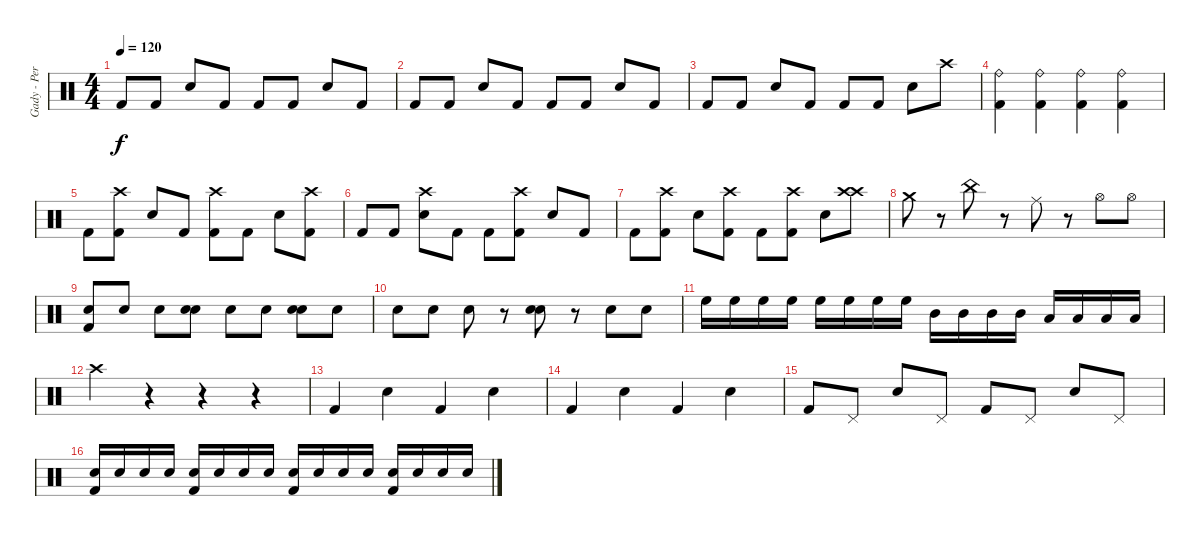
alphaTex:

\track ("Gady - Perkusja" "Gady - Per") {instrument percussion}
\staff {score}
\articulation defaults
\ts (4 4)
\tempo 120
\clef neutral
\ks c "Kick (hit) 2".8{dy f} "Kick (hit) 2".8 "Snare (hit) 2".8 "Kick (hit) 2".8 "Kick (hit) 2".8 "Kick (hit) 2".8 "Snare (hit) 2".8 "Kick (hit) 2".8
|
"Kick (hit) 2".8 "Kick (hit) 2".8 "Snare (hit) 2".8 "Kick (hit) 2".8 "Kick (hit) 2".8 "Kick (hit) 2".8 "Snare (hit) 2".8 "Kick (hit) 2".8 |
"Kick (hit) 2".8 "Kick (hit) 2".8 "Snare (hit) 2".8 "Kick (hit) 2".8 "Kick (hit) 2".8 "Kick (hit) 2".8 "Snare (hit) 2".8 "Crash high (hit)".8 |
("Ride (bell)" "Kick (hit) 2").4 ("Ride (bell)" "Kick (hit) 2").4 ("Ride (bell)" "Kick (hit) 2").4 ("Ride (bell)" "Kick (hit) 2").4 |
"Kick (hit) 2".8 ("Crash high (hit)" "Kick (hit) 2").8 "Snare (hit) 2".8 "Kick (hit) 2".8 ("Crash high (hit)" "Kick (hit) 2").8 "Kick (hit) 2".8 "Snare (hit) 2".8 ("Crash high (hit)" "Kick (hit) 2").8 |
"Kick (hit) 2".8 "Kick (hit) 2".8 ("Crash high (hit)" "Snare (hit) 2").8 "Kick (hit) 2".8 "Kick (hit) 2".8 ("Crash high (hit)" "Kick (hit) 2").8 "Snare (hit) 2".8 "Kick (hit) 2".8 |
"Kick (hit) 2".8 ("Crash high (hit)" "Kick (hit) 2").8 "Snare (hit) 2".8 ("Crash high (hit)" "Kick (hit) 2").8 "Kick (hit) 2".8 ("Crash high (hit)" "Kick (hit) 2").8 "Snare (hit) 2".8 ("Crash high (hit)" "Crash high (hit)").8 |
"Crash medium (hit)".8 r.8 "China (hit)".8 r.8 "Ride (middle)".8 r.8 "Hi-Hat (open)".8 "Hi-Hat (open)".8 |
("Electric Snare (hit)" "Kick (hit) 2").8 "Electric Snare (hit)".8 "Electric Snare (hit)".8 ("Electric Snare (hit)" "Snare (hit) 2").8 "Electric Snare (hit)".8 "Electric Snare (hit)".8 ("Electric Snare (hit)" "Snare (hit) 2").8 "Electric Snare (hit)".8 |
"Electric Snare (hit)".8 "Snare (hit) 2".8 "Electric Snare (hit)".8 r.8 ("Electric Snare (hit)" "Snare (hit) 2").8 r.8 "Electric Snare (hit)".8 "Snare (hit) 2".8 |
"High Floor Tom (hit)".16 "High Floor Tom (hit)".16 "High Floor Tom (hit)".16 "High Floor Tom (hit)".16 "High Floor Tom (hit)".16 "High Floor Tom (hit)".16 "High Floor Tom (hit)".16 "High Floor Tom (hit)".16 "Mid Tom (hit)".16 "Mid Tom (hit)".16 "Mid Tom (hit)".16 "Mid Tom (hit)".16 "Low Tom (hit)".16 "Low Tom (hit)".16 "Low Tom (hit)".16 "Low Tom (hit)".16 |
"Crash high (hit)".4 r.4 r.4 r.4 |
"Kick (hit) 2".4 "Snare (hit) 2".4 "Kick (hit) 2".4 "Snare (hit) 2".4 |
"Kick (hit) 2".4 "Snare (hit) 2".4 "Kick (hit) 2".4 "Snare (hit) 2".4 |
"Kick (hit) 2".8 "Pedal Hi-Hat (hit)".8 "Snare (hit) 2".8 "Pedal Hi-Hat (hit)".8 "Kick (hit) 2".8 "Pedal Hi-Hat (hit)".8 "Snare (hit) 2".8 "Pedal Hi-Hat (hit)".8 |
("Snare (hit) 2" "Kick (hit) 2").16 "Snare (hit) 2".16 "Snare (hit) 2".16 "Snare (hit) 2".16 ("Snare (hit) 2" "Kick (hit) 2").16 "Snare (hit) 2".16 "Snare (hit) 2".16 "Snare (hit) 2".16 ("Snare (hit) 2" "Kick (hit) 2").16 "Snare (hit) 2".16 "Snare (hit) 2".16 "Snare (hit) 2".16 ("Snare (hit) 2" "Kick (hit) 2").16 "Snare (hit) 2".16 "Snare (hit) 2".16 "Snare (hit) 2".16
